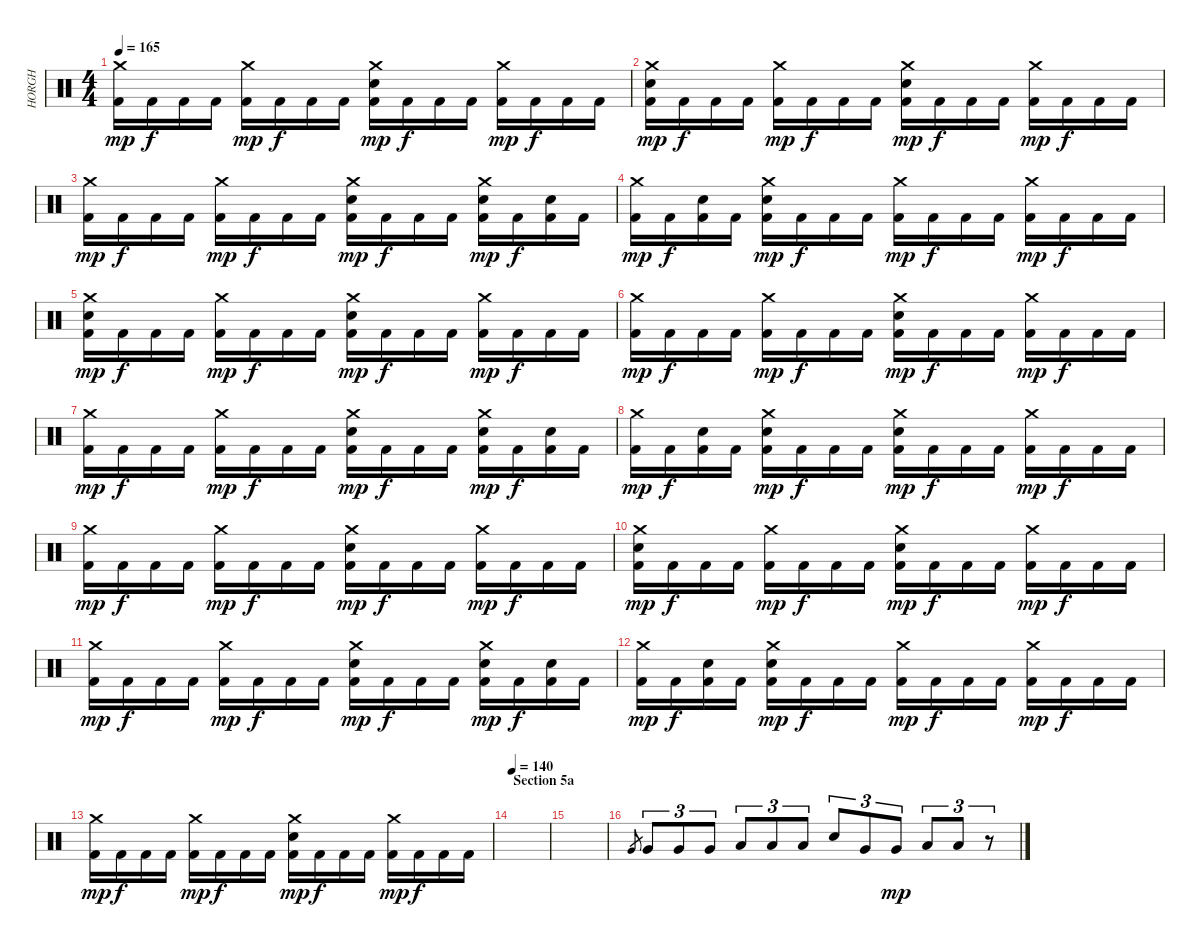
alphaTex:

\track ("HORGH" "HORGH") {instrument percussion}
\staff {score}
\articulation defaults
\ts (4 4)
\tempo 165
\clef neutral
\ks c
("Crash medium (hit)" "Kick (hit) 2").16{dy mp} "Kick (hit) 2".16{dy f} "Kick (hit) 2".16 "Kick (hit) 2".16 ("Crash medium (hit)" "Kick (hit) 2").16{dy mp} "Kick (hit) 2".16{dy f} "Kick (hit) 2".16 "Kick (hit) 2".16 ("Crash medium (hit)" "Electric Snare (hit)" "Kick (hit) 2").16{dy mp} "Kick (hit) 2".16{dy f} "Kick (hit) 2".16 "Kick (hit) 2".16 ("Crash medium (hit)" "Kick (hit) 2").16{dy mp} "Kick (hit) 2".16{dy f} "Kick (hit) 2".16 "Kick (hit) 2".16 |
("Crash medium (hit)" "Electric Snare (hit)" "Kick (hit) 2").16{dy mp} "Kick (hit) 2".16{dy f} "Kick (hit) 2".16 "Kick (hit) 2".16 ("Crash medium (hit)" "Kick (hit) 2").16{dy mp} "Kick (hit) 2".16{dy f} "Kick (hit) 2".16 "Kick (hit) 2".16 ("Crash medium (hit)" "Electric Snare (hit)" "Kick (hit) 2").16{dy mp} "Kick (hit) 2".16{dy f} "Kick (hit) 2".16 "Kick (hit) 2".16 ("Crash medium (hit)" "Kick (hit) 2").16{dy mp} "Kick (hit) 2".16{dy f} "Kick (hit) 2".16 "Kick (hit) 2".16 |
("Crash medium (hit)" "Kick (hit) 2").16{dy mp} "Kick (hit) 2".16{dy f} "Kick (hit) 2".16 "Kick (hit) 2".16 ("Crash medium (hit)" "Kick (hit) 2").16{dy mp} "Kick (hit) 2".16{dy f} "Kick (hit) 2".16 "Kick (hit) 2".16 ("Crash medium (hit)" "Electric Snare (hit)" "Kick (hit) 2").16{dy mp} "Kick (hit) 2".16{dy f} "Kick (hit) 2".16 "Kick (hit) 2".16 ("Crash medium (hit)" "Electric Snare (hit)" "Kick (hit) 2").16{dy mp} "Kick (hit) 2".16{dy f} ("Electric Snare (hit)" "Kick (hit) 2").16 "Kick (hit) 2".16 |
("Crash medium (hit)" "Kick (hit) 2").16{dy mp} "Kick (hit) 2".16{dy f} ("Electric Snare (hit)" "Kick (hit) 2").16 "Kick (hit) 2".16 ("Crash medium (hit)" "Electric Snare (hit)" "Kick (hit) 2").16{dy mp} "Kick (hit) 2".16{dy f} "Kick (hit) 2".16 "Kick (hit) 2".16 ("Crash medium (hit)" "Kick (hit) 2").16{dy mp} "Kick (hit) 2".16{dy f} "Kick (hit) 2".16 "Kick (hit) 2".16 ("Crash medium (hit)" "Kick (hit) 2").16{dy mp} "Kick (hit) 2".16{dy f} "Kick (hit) 2".16 "Kick (hit) 2".16 |
("Crash medium (hit)" "Electric Snare (hit)" "Kick (hit) 2").16{dy mp} "Kick (hit) 2".16{dy f} "Kick (hit) 2".16 "Kick (hit) 2".16 ("Crash medium (hit)" "Kick (hit) 2").16{dy mp} "Kick (hit) 2".16{dy f} "Kick (hit) 2".16 "Kick (hit) 2".16 ("Crash medium (hit)" "Electric Snare (hit)" "Kick (hit) 2").16{dy mp} "Kick (hit) 2".16{dy f} "Kick (hit) 2".16 "Kick (hit) 2".16 ("Crash medium (hit)" "Kick (hit) 2").16{dy mp} "Kick (hit) 2".16{dy f} "Kick (hit) 2".16 "Kick (hit) 2".16 |
("Crash medium (hit)" "Kick (hit) 2").16{dy mp} "Kick (hit) 2".16{dy f} "Kick (hit) 2".16 "Kick (hit) 2".16 ("Crash medium (hit)" "Kick (hit) 2").16{dy mp} "Kick (hit) 2".16{dy f} "Kick (hit) 2".16 "Kick (hit) 2".16 ("Crash medium (hit)" "Electric Snare (hit)" "Kick (hit) 2").16{dy mp} "Kick (hit) 2".16{dy f} "Kick (hit) 2".16 "Kick (hit) 2".16 ("Crash medium (hit)" "Kick (hit) 2").16{dy mp} "Kick (hit) 2".16{dy f} "Kick (hit) 2".16 "Kick (hit) 2".16 |
("Crash medium (hit)" "Kick (hit) 2").16{dy mp} "Kick (hit) 2".16{dy f} "Kick (hit) 2".16 "Kick (hit) 2".16 ("Crash medium (hit)" "Kick (hit) 2").16{dy mp} "Kick (hit) 2".16{dy f} "Kick (hit) 2".16 "Kick (hit) 2".16 ("Crash medium (hit)" "Electric Snare (hit)" "Kick (hit) 2").16{dy mp} "Kick (hit) 2".16{dy f} "Kick (hit) 2".16 "Kick (hit) 2".16 ("Crash medium (hit)" "Electric Snare (hit)" "Kick (hit) 2").16{dy mp} "Kick (hit) 2".16{dy f} ("Electric Snare (hit)" "Kick (hit) 2").16 "Kick (hit) 2".16 |
("Crash medium (hit)" "Kick (hit) 2").16{dy mp} "Kick (hit) 2".16{dy f} ("Electric Snare (hit)" "Kick (hit) 2").16 "Kick (hit) 2".16 ("Crash medium (hit)" "Electric Snare (hit)" "Kick (hit) 2").16{dy mp} "Kick (hit) 2".16{dy f} "Kick (hit) 2".16 "Kick (hit) 2".16 ("Crash medium (hit)" "Electric Snare (hit)" "Kick (hit) 2").16{dy mp} "Kick (hit) 2".16{dy f} "Kick (hit) 2".16 "Kick (hit) 2".16 ("Crash medium (hit)" "Kick (hit) 2").16{dy mp} "Kick (hit) 2".16{dy f} "Kick (hit) 2".16 "Kick (hit) 2".16 |
("Crash medium (hit)" "Kick (hit) 2").16{dy mp} "Kick (hit) 2".16{dy f} "Kick (hit) 2".16 "Kick (hit) 2".16 ("Crash medium (hit)" "Kick (hit) 2").16{dy mp} "Kick (hit) 2".16{dy f} "Kick (hit) 2".16 "Kick (hit) 2".16 ("Crash medium (hit)" "Electric Snare (hit)" "Kick (hit) 2").16{dy mp} "Kick (hit) 2".16{dy f} "Kick (hit) 2".16 "Kick (hit) 2".16 ("Crash medium (hit)" "Kick (hit) 2").16{dy mp} "Kick (hit) 2".16{dy f} "Kick (hit) 2".16 "Kick (hit) 2".16 |
("Crash medium (hit)" "Electric Snare (hit)" "Kick (hit) 2").16{dy mp} "Kick (hit) 2".16{dy f} "Kick (hit) 2".16 "Kick (hit) 2".16 ("Crash medium (hit)" "Kick (hit) 2").16{dy mp} "Kick (hit) 2".16{dy f} "Kick (hit) 2".16 "Kick (hit) 2".16 ("Crash medium (hit)" "Electric Snare (hit)" "Kick (hit) 2").16{dy mp} "Kick (hit) 2".16{dy f} "Kick (hit) 2".16 "Kick (hit) 2".16 ("Crash medium (hit)" "Kick (hit) 2").16{dy mp} "Kick (hit) 2".16{dy f} "Kick (hit) 2".16 "Kick (hit) 2".16 |
("Crash medium (hit)" "Kick (hit) 2").16{dy mp} "Kick (hit) 2".16{dy f} "Kick (hit) 2".16 "Kick (hit) 2".16 ("Crash medium (hit)" "Kick (hit) 2").16{dy mp} "Kick (hit) 2".16{dy f} "Kick (hit) 2".16 "Kick (hit) 2".16 ("Crash medium (hit)" "Electric Snare (hit)" "Kick (hit) 2").16{dy mp} "Kick (hit) 2".16{dy f} "Kick (hit) 2".16 "Kick (hit) 2".16 ("Crash medium (hit)" "Electric Snare (hit)" "Kick (hit) 2").16{dy mp} "Kick (hit) 2".16{dy f} ("Electric Snare (hit)" "Kick (hit) 2").16 "Kick (hit) 2".16 |
("Crash medium (hit)" "Kick (hit) 2").16{dy mp} "Kick (hit) 2".16{dy f} ("Electric Snare (hit)" "Kick (hit) 2").16 "Kick (hit) 2".16 ("Crash medium (hit)" "Electric Snare (hit)" "Kick (hit) 2").16{dy mp} "Kick (hit) 2".16{dy f} "Kick (hit) 2".16 "Kick (hit) 2".16 ("Crash medium (hit)" "Kick (hit) 2").16{dy mp} "Kick (hit) 2".16{dy f} "Kick (hit) 2".16 "Kick (hit) 2".16 ("Crash medium (hit)" "Kick (hit) 2").16{dy mp} "Kick (hit) 2".16{dy f} "Kick (hit) 2".16 "Kick (hit) 2".16 |
("Crash medium (hit)" "Kick (hit) 2").16{dy mp} "Kick (hit) 2".16{dy f} "Kick (hit) 2".16 "Kick (hit) 2".16 ("Crash medium (hit)" "Kick (hit) 2").16{dy mp} "Kick (hit) 2".16{dy f} "Kick (hit) 2".16 "Kick (hit) 2".16 ("Crash medium (hit)" "Electric Snare (hit)" "Kick (hit) 2").16{dy mp} "Kick (hit) 2".16{dy f} "Kick (hit) 2".16 "Kick (hit) 2".16 ("Crash medium (hit)" "Kick (hit) 2").16{dy mp} "Kick (hit) 2".16{dy f} "Kick (hit) 2".16 "Kick (hit) 2".16 |
\section ("" "Section 5a")
\tempo 140
|
|
"Very Low Tom (hit)".8{gr} "Very Low Tom (hit)".8{tu (3 2) volume 9} "Very Low Tom (hit)".8{tu (3 2)} "Very Low Tom (hit)".8{tu (3 2)} "Low Floor Tom (hit)".8{tu (3 2)} "Low Floor Tom (hit)".8{tu (3 2)} "Low Floor Tom (hit)".8{tu (3 2)} "Electric Snare (hit)".8{tu (3 2)} "Very Low Tom (hit)".8{tu (3 2)} "Very Low Tom (hit)".8{tu (3 2) dy mp} "Low Floor Tom (hit)".8{tu (3 2)} "Low Floor Tom (hit)".8{tu (3 2)} r.8{tu (3 2)}
